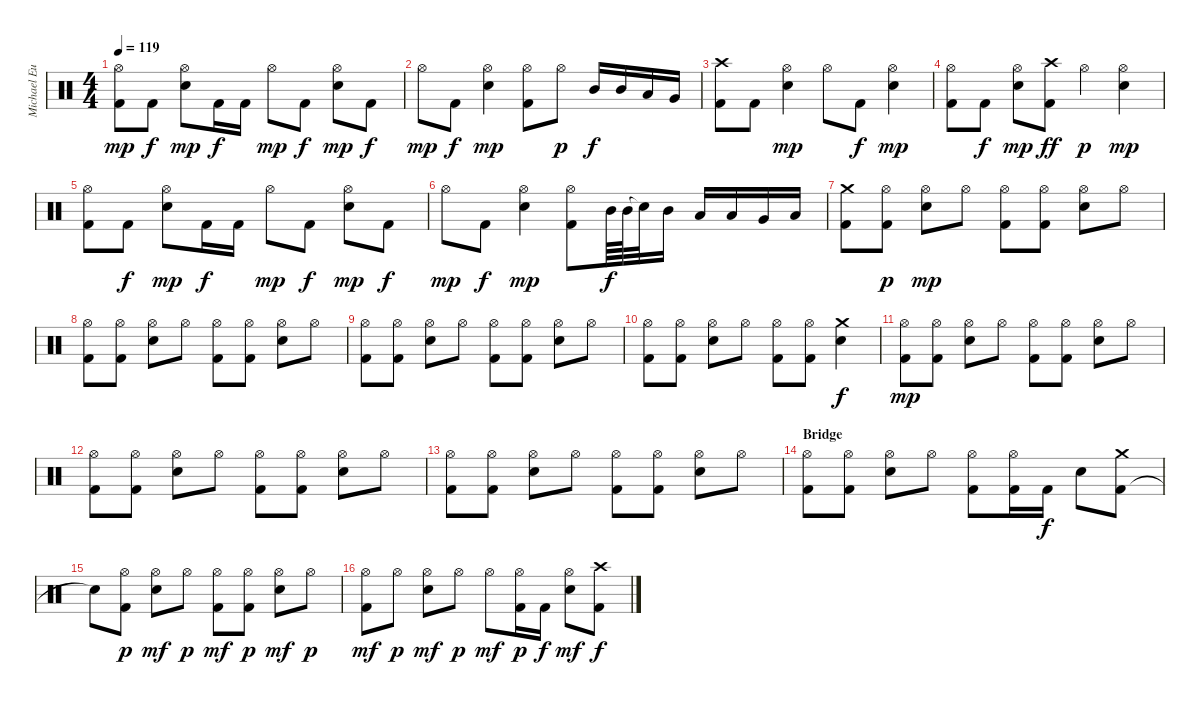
\track ("Michael Eurich" "Michael Eu") {instrument percussion}
\staff {score}
\articulation defaults
\ts (4 4)
\tempo 119
\clef neutral
\ks c
("Kick (hit) 2" "Hi-Hat (open)").8{dy mp} "Kick (hit) 2".8{dy f} ("Hi-Hat (open)" "Snare (hit) 2").8{dy mp} "Kick (hit) 2".16{dy f} "Kick (hit) 2".16 "Hi-Hat (open)".8{dy mp} "Kick (hit) 2".8{dy f} ("Hi-Hat (open)" "Snare (hit) 2").8{dy mp} "Kick (hit) 2".8{dy f} |
"Hi-Hat (open)".8{dy mp} "Kick (hit) 2".8{dy f} ("Hi-Hat (open)" "Snare (hit) 2").4{dy mp} ("Kick (hit) 2" "Hi-Hat (open)").8 "Hi-Hat (open)".8{dy p} "Mid Tom (hit)".16{dy f} "Mid Tom (hit)".16 "Low Tom (hit)".16 "Very Low Tom (hit)".16 |
("Kick (hit) 2" "Crash high (hit)").8 "Kick (hit) 2".8 ("Hi-Hat (open)" "Snare (hit) 2").4{dy mp} "Hi-Hat (open)".8 "Kick (hit) 2".8{dy f} ("Hi-Hat (open)" "Snare (hit) 2").4{dy mp} |
("Kick (hit) 2" "Hi-Hat (open)").8 "Kick (hit) 2".8{dy f} ("Hi-Hat (open)" "Snare (hit) 2").8{dy mp} ("Kick (hit) 2" "Crash high (hit)").8{dy ff} "Hi-Hat (open)".4{dy p} ("Hi-Hat (open)" "Snare (hit) 2").4{dy mp} |
("Kick (hit) 2" "Hi-Hat (open)").8 "Kick (hit) 2".8{dy f} ("Hi-Hat (open)" "Snare (hit) 2").8{dy mp} "Kick (hit) 2".16{dy f} "Kick (hit) 2".16 "Hi-Hat (open)".8{dy mp} "Kick (hit) 2".8{dy f} ("Hi-Hat (open)" "Snare (hit) 2").8{dy mp} "Kick (hit) 2".8{dy f} |
"Hi-Hat (open)".8{dy mp} "Kick (hit) 2".8{dy f} ("Hi-Hat (open)" "Snare (hit) 2").4{dy mp} ("Kick (hit) 2" "Hi-Hat (open)").8 "Mid Tom (hit)".64{dy f} "Mid Tom (hit)".64 "Snare (hit)"{t}.32 "Mid Tom (hit)".16 "Low Tom (hit)".16 "Low Tom (hit)".16 "Very Low Tom (hit)".16 "Low Floor Tom (hit)".16 |
("Kick (hit) 2" "Crash medium (hit)").8 ("Kick (hit) 2" "Hi-Hat (open)").8{dy p} ("Hi-Hat (open)" "Snare (hit) 2").8{dy mp} "Hi-Hat (open)".8 ("Kick (hit) 2" "Hi-Hat (open)").8 ("Kick (hit) 2" "Hi-Hat (open)").8 ("Hi-Hat (open)" "Snare (hit) 2").8 "Hi-Hat (open)".8 |
("Kick (hit) 2" "Hi-Hat (open)").8 ("Kick (hit) 2" "Hi-Hat (open)").8 ("Hi-Hat (open)" "Snare (hit) 2").8 "Hi-Hat (open)".8 ("Kick (hit) 2" "Hi-Hat (open)").8 ("Kick (hit) 2" "Hi-Hat (open)").8 ("Hi-Hat (open)" "Snare (hit) 2").8 "Hi-Hat (open)".8 |
("Kick (hit) 2" "Hi-Hat (open)").8 ("Kick (hit) 2" "Hi-Hat (open)").8 ("Hi-Hat (open)" "Snare (hit) 2").8 "Hi-Hat (open)".8 ("Kick (hit) 2" "Hi-Hat (open)").8 ("Kick (hit) 2" "Hi-Hat (open)").8 ("Hi-Hat (open)" "Snare (hit) 2").8 "Hi-Hat (open)".8 |
("Kick (hit) 2" "Hi-Hat (open)").8 ("Kick (hit) 2" "Hi-Hat (open)").8 ("Hi-Hat (open)" "Snare (hit) 2").8 "Hi-Hat (open)".8 ("Kick (hit) 2" "Hi-Hat (open)").8 ("Kick (hit) 2" "Hi-Hat (open)").8 ("Crash medium (hit)" "Snare (hit) 2").4{dy f} |
("Kick (hit) 2" "Hi-Hat (open)").8{dy mp} ("Kick (hit) 2" "Hi-Hat (open)").8 ("Hi-Hat (open)" "Snare (hit) 2").8 "Hi-Hat (open)".8 ("Kick (hit) 2" "Hi-Hat (open)").8 ("Kick (hit) 2" "Hi-Hat (open)").8 ("Hi-Hat (open)" "Snare (hit) 2").8 "Hi-Hat (open)".8 |
("Kick (hit) 2" "Hi-Hat (open)").8 ("Kick (hit) 2" "Hi-Hat (open)").8 ("Hi-Hat (open)" "Snare (hit) 2").8 "Hi-Hat (open)".8 ("Kick (hit) 2" "Hi-Hat (open)").8 ("Kick (hit) 2" "Hi-Hat (open)").8 ("Hi-Hat (open)" "Snare (hit) 2").8 "Hi-Hat (open)".8 |
("Kick (hit) 2" "Hi-Hat (open)").8 ("Kick (hit) 2" "Hi-Hat (open)").8 ("Hi-Hat (open)" "Snare (hit) 2").8 "Hi-Hat (open)".8 ("Kick (hit) 2" "Hi-Hat (open)").8 ("Kick (hit) 2" "Hi-Hat (open)").8 ("Hi-Hat (open)" "Snare (hit) 2").8 "Hi-Hat (open)".8 |
\section ("" "Bridge")
("Kick (hit) 2" "Hi-Hat (open)").8 ("Kick (hit) 2" "Hi-Hat (open)").8 ("Hi-Hat (open)" "Snare (hit) 2").8 "Hi-Hat (open)".8 ("Kick (hit) 2" "Hi-Hat (open)").8 ("Kick (hit) 2" "Hi-Hat (open)").16 "Kick (hit) 2".16{dy f} "Snare (hit) 2".8 ("Kick (hit) 2" "Crash medium (hit)").8 |
"Snare (hit)"{t}.8 ("Kick (hit) 2" "Hi-Hat (open)").8{dy p} ("Hi-Hat (open)" "Snare (hit) 2").8{dy mf} "Hi-Hat (open)".8{dy p} ("Kick (hit) 2" "Hi-Hat (open)").8{dy mf} ("Kick (hit) 2" "Hi-Hat (open)").8{dy p} ("Hi-Hat (open)" "Snare (hit) 2").8{dy mf} "Hi-Hat (open)".8{dy p} |
("Kick (hit) 2" "Hi-Hat (open)").8{dy mf} "Hi-Hat (open)".8{dy p} ("Hi-Hat (open)" "Snare (hit) 2").8{dy mf} "Hi-Hat (open)".8{dy p} "Hi-Hat (open)".8{dy mf} ("Kick (hit) 2" "Hi-Hat (open)").16{dy p} "Kick (hit) 2".16{dy f} ("Hi-Hat (open)" "Snare (hit) 2").8{dy mf} ("Kick (hit) 2" "Crash high (hit)").8{dy f}
